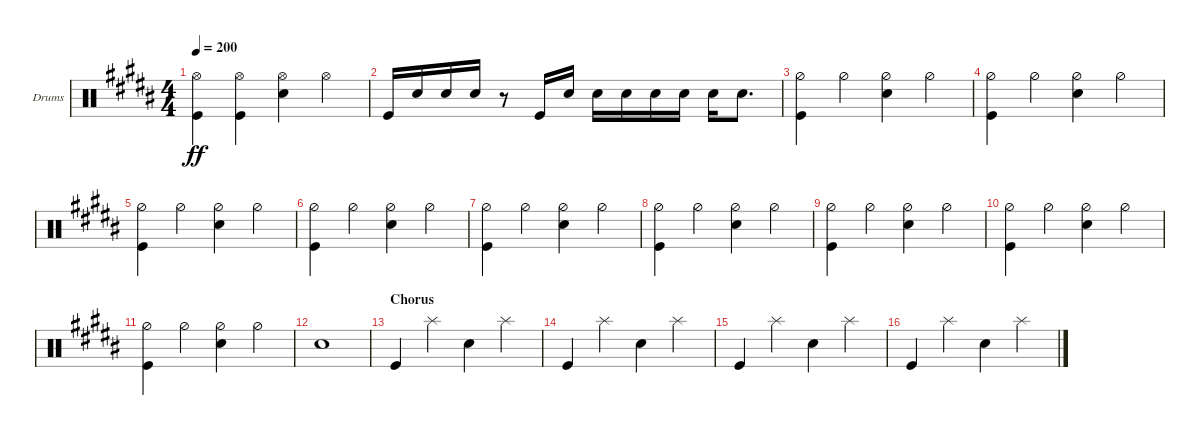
\defaultSystemsLayout 4
\bracketExtendMode groupsimilarinstruments
\firstSystemTrackNameOrientation horizontal
\otherSystemsTrackNameOrientation horizontal
\track ("Drumkit" "Drums") {instrument percussion}
\staff {score}
\articulation defaults
\ts (4 4)
\tempo 200
\clef neutral
\ks b
("Kick (hit)" "Hi-Hat (open)").4{dy ff} ("Kick (hit)" "Hi-Hat (open)").4 ("Snare (hit) 2" "Hi-Hat (open)").4 "Hi-Hat (open)".4 |
"Kick (hit)".16 "Snare (hit) 2".16 "Snare (hit) 2".16 "Snare (hit) 2".16 r.8 "Kick (hit)".16 "Snare (hit) 2".16 "Snare (hit) 2".16 "Snare (hit) 2".16 "Snare (hit) 2".16 "Snare (hit) 2".16 "Snare (hit) 2".16 "Snare (hit) 2".8{d} |
("Hi-Hat (half)" "Kick (hit)").4 "Hi-Hat (half)".4 ("Hi-Hat (half)" "Snare (hit) 2").4 "Hi-Hat (half)".4 |
("Hi-Hat (half)" "Kick (hit)").4 "Hi-Hat (half)".4 ("Hi-Hat (half)" "Snare (hit) 2").4 "Hi-Hat (half)".4 |
("Hi-Hat (half)" "Kick (hit)").4 "Hi-Hat (half)".4 ("Hi-Hat (half)" "Snare (hit) 2").4 "Hi-Hat (half)".4 |
("Hi-Hat (half)" "Kick (hit)").4 "Hi-Hat (half)".4 ("Hi-Hat (half)" "Snare (hit) 2").4 "Hi-Hat (half)".4 |
("Hi-Hat (half)" "Kick (hit)").4 "Hi-Hat (half)".4 ("Hi-Hat (half)" "Snare (hit) 2").4 "Hi-Hat (half)".4 |
("Hi-Hat (half)" "Kick (hit)").4 "Hi-Hat (half)".4 ("Hi-Hat (half)" "Snare (hit) 2").4 "Hi-Hat (half)".4 |
("Hi-Hat (half)" "Kick (hit)").4 "Hi-Hat (half)".4 ("Hi-Hat (half)" "Snare (hit) 2").4 "Hi-Hat (half)".4 |
("Hi-Hat (half)" "Kick (hit)").4 "Hi-Hat (half)".4 ("Hi-Hat (half)" "Snare (hit) 2").4 "Hi-Hat (half)".4 |
("Hi-Hat (half)" "Kick (hit)").4 "Hi-Hat (half)".4 ("Hi-Hat (half)" "Snare (hit) 2").4 "Hi-Hat (half)".4 |
"Snare (hit) 2".1 |
\section ("" "Chorus")
"Kick (hit)".4 "Splash (hit)".4 "Snare (hit) 2".4 "Splash (hit)".4 |
"Kick (hit)".4 "Splash (hit)".4 "Snare (hit) 2".4 "Splash (hit)".4 |
"Kick (hit)".4 "Splash (hit)".4 "Snare (hit) 2".4 "Splash (hit)".4 |
"Kick (hit)".4 "Splash (hit)".4 "Snare (hit) 2".4 "Splash (hit)".4
